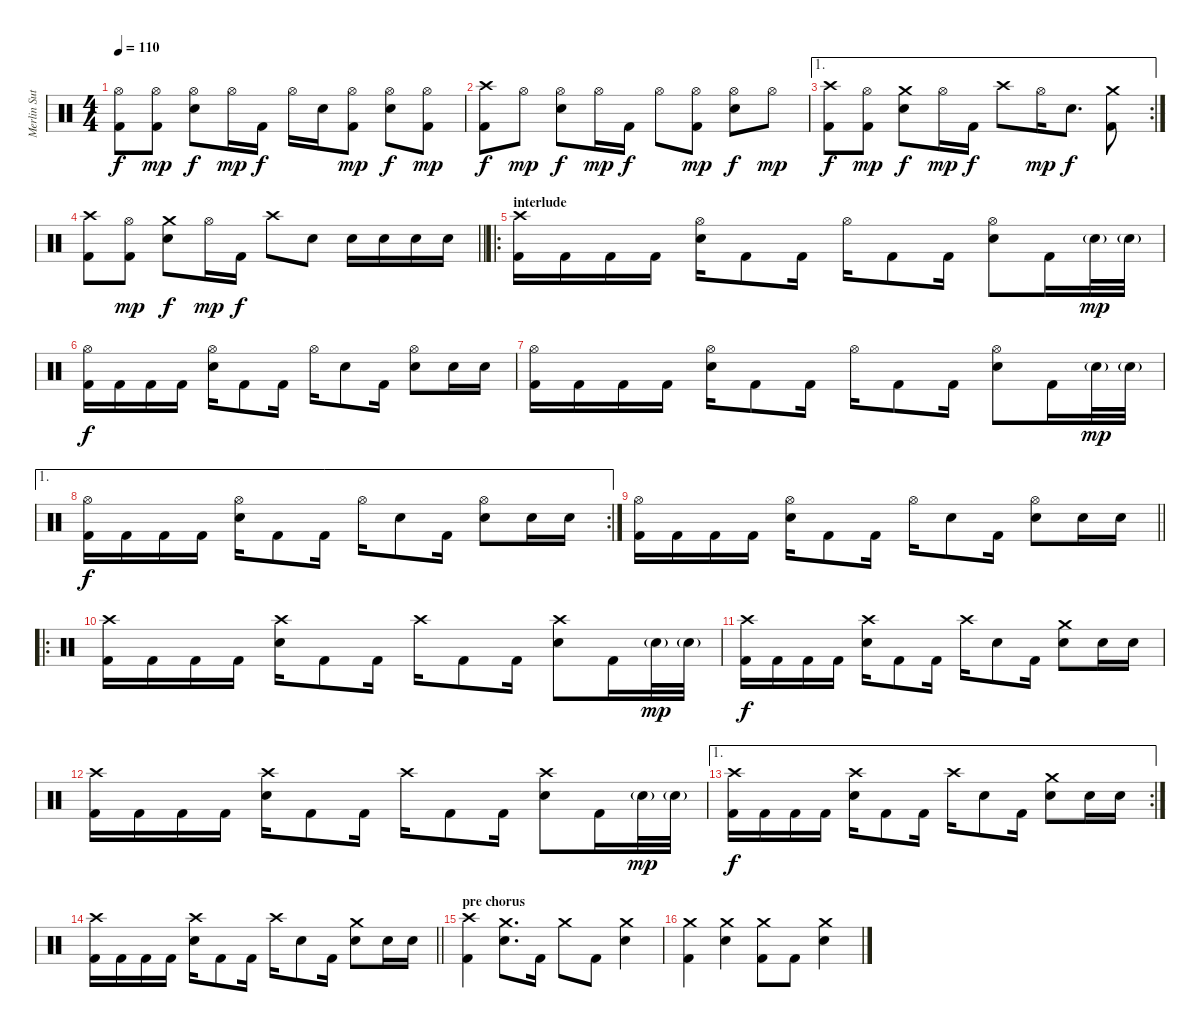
\track ("Merlin Sutter" "Merlin Sut") {instrument percussion}
\staff {score}
\articulation defaults
\ts (4 4)
\tempo 110
\clef neutral
\ks c
("Hi-Hat (open)" "Kick (hit) 2").8{dy f} ("Hi-Hat (open)" "Kick (hit) 2").8{dy mp} ("Hi-Hat (open)" "Snare (hit) 2").8{dy f} "Hi-Hat (open)".16{dy mp} "Kick (hit) 2".16{dy f} "Hi-Hat (open)".16 "Snare (hit) 2".16 ("Hi-Hat (open)" "Kick (hit) 2").8{dy mp} ("Hi-Hat (open)" "Snare (hit) 2").8{dy f} ("Hi-Hat (open)" "Kick (hit) 2").8{dy mp} |
("Crash high (hit)" "Kick (hit) 2").8{dy f} "Hi-Hat (open)".8{dy mp} ("Hi-Hat (open)" "Snare (hit) 2").8{dy f} "Hi-Hat (open)".16{dy mp} "Kick (hit) 2".16{dy f} "Hi-Hat (open)".8 ("Hi-Hat (open)" "Kick (hit) 2").8{dy mp} ("Hi-Hat (open)" "Snare (hit) 2").8{dy f} "Hi-Hat (open)".8{dy mp} |
\ae 1
\rc 2
("Crash high (hit)" "Kick (hit) 2").8{dy f} ("Hi-Hat (open)" "Kick (hit) 2").8{dy mp} ("Crash medium (hit)" "Snare (hit) 2").8{dy f} "Hi-Hat (open)".16{dy mp} "Kick (hit) 2".16{dy f} "Crash high (hit)".8 "Hi-Hat (open)".16{dy mp} "Snare (hit) 2".8{d dy f} ("Crash medium (hit)" "Kick (hit) 2").8 |
\barLineRight lightlight
("Crash high (hit)" "Kick (hit) 2").8 ("Hi-Hat (open)" "Kick (hit) 2").8{dy mp} ("Crash medium (hit)" "Snare (hit) 2").8{dy f} "Hi-Hat (open)".16{dy mp} "Kick (hit) 2".16{dy f} "Crash high (hit)".8 "Snare (hit) 2".8 "Snare (hit) 2".16 "Snare (hit) 2".16 "Snare (hit) 2".16 "Snare (hit) 2".16 |
\ro
\section ("" "interlude")
("Crash high (hit)" "Kick (hit) 2").16 "Kick (hit) 2".16 "Kick (hit) 2".16 "Kick (hit) 2".16 ("Hi-Hat (open)" "Snare (hit) 2").16 "Kick (hit) 2".8 "Kick (hit) 2".16 "Hi-Hat (open)".16 "Kick (hit) 2".8 "Kick (hit) 2".16 ("Hi-Hat (open)" "Snare (hit) 2").8 "Kick (hit) 2".16 "Snare (hit) 2"{g}.32{dy mp} "Snare (hit) 2"{g}.32 |
("Hi-Hat (open)" "Kick (hit) 2").16{dy f} "Kick (hit) 2".16 "Kick (hit) 2".16 "Kick (hit) 2".16 ("Hi-Hat (open)" "Snare (hit) 2").16 "Kick (hit) 2".8 "Kick (hit) 2".16 "Hi-Hat (open)".16 "Snare (hit) 2".8 "Kick (hit) 2".16 ("Hi-Hat (open)" "Snare (hit) 2").8 "Snare (hit) 2".16 "Snare (hit) 2".16 |
("Hi-Hat (open)" "Kick (hit) 2").16 "Kick (hit) 2".16 "Kick (hit) 2".16 "Kick (hit) 2".16 ("Hi-Hat (open)" "Snare (hit) 2").16 "Kick (hit) 2".8 "Kick (hit) 2".16 "Hi-Hat (open)".16 "Kick (hit) 2".8 "Kick (hit) 2".16 ("Hi-Hat (open)" "Snare (hit) 2").8 "Kick (hit) 2".16 "Snare (hit) 2"{g}.32{dy mp} "Snare (hit) 2"{g}.32 |
\ae 1
\rc 2
("Hi-Hat (open)" "Kick (hit) 2").16{dy f} "Kick (hit) 2".16 "Kick (hit) 2".16 "Kick (hit) 2".16 ("Hi-Hat (open)" "Snare (hit) 2").16 "Kick (hit) 2".8 "Kick (hit) 2".16 "Hi-Hat (open)".16 "Snare (hit) 2".8 "Kick (hit) 2".16 ("Hi-Hat (open)" "Snare (hit) 2").8 "Snare (hit) 2".16 "Snare (hit) 2".16 |
\barLineRight lightlight
("Hi-Hat (open)" "Kick (hit) 2").16 "Kick (hit) 2".16 "Kick (hit) 2".16 "Kick (hit) 2".16 ("Hi-Hat (open)" "Snare (hit) 2").16 "Kick (hit) 2".8 "Kick (hit) 2".16 "Hi-Hat (open)".16 "Snare (hit) 2".8 "Kick (hit) 2".16 ("Hi-Hat (open)" "Snare (hit) 2").8 "Snare (hit) 2".16 "Snare (hit) 2".16 |
\ro
\section ("" "")
("Crash high (hit)" "Kick (hit) 2").16 "Kick (hit) 2".16 "Kick (hit) 2".16 "Kick (hit) 2".16 ("Crash high (hit)" "Snare (hit) 2").16 "Kick (hit) 2".8 "Kick (hit) 2".16 "Crash high (hit)".16 "Kick (hit) 2".8 "Kick (hit) 2".16 ("Crash high (hit)" "Snare (hit) 2").8 "Kick (hit) 2".16 "Snare (hit) 2"{g}.32{dy mp} "Snare (hit) 2"{g}.32 |
("Crash high (hit)" "Kick (hit) 2").16{dy f} "Kick (hit) 2".16 "Kick (hit) 2".16 "Kick (hit) 2".16 ("Crash high (hit)" "Snare (hit) 2").16 "Kick (hit) 2".8 "Kick (hit) 2".16 "Crash high (hit)".16 "Snare (hit) 2".8 "Kick (hit) 2".16 ("Crash medium (hit)" "Snare (hit) 2").8 "Snare (hit) 2".16 "Snare (hit) 2".16 |
("Crash high (hit)" "Kick (hit) 2").16 "Kick (hit) 2".16 "Kick (hit) 2".16 "Kick (hit) 2".16 ("Crash high (hit)" "Snare (hit) 2").16 "Kick (hit) 2".8 "Kick (hit) 2".16 "Crash high (hit)".16 "Kick (hit) 2".8 "Kick (hit) 2".16 ("Crash high (hit)" "Snare (hit) 2").8 "Kick (hit) 2".16 "Snare (hit) 2"{g}.32{dy mp} "Snare (hit) 2"{g}.32 |
\ae 1
\rc 2
("Crash high (hit)" "Kick (hit) 2").16{dy f} "Kick (hit) 2".16 "Kick (hit) 2".16 "Kick (hit) 2".16 ("Crash high (hit)" "Snare (hit) 2").16 "Kick (hit) 2".8 "Kick (hit) 2".16 "Crash high (hit)".16 "Snare (hit) 2".8 "Kick (hit) 2".16 ("Crash medium (hit)" "Snare (hit) 2").8 "Snare (hit) 2".16 "Snare (hit) 2".16 |
\barLineRight lightlight
("Crash high (hit)" "Kick (hit) 2").16 "Kick (hit) 2".16 "Kick (hit) 2".16 "Kick (hit) 2".16 ("Crash high (hit)" "Snare (hit) 2").16 "Kick (hit) 2".8 "Kick (hit) 2".16 "Crash high (hit)".16 "Snare (hit) 2".8 "Kick (hit) 2".16 ("Crash medium (hit)" "Snare (hit) 2").8 "Snare (hit) 2".16 "Snare (hit) 2".16 |
\section ("" "pre chorus")
("Crash high (hit)" "Kick (hit) 2").4 ("Crash medium (hit)" "Snare (hit) 2").8{d} "Kick (hit) 2".16 "Crash medium (hit)".8 "Kick (hit) 2".8 ("Crash medium (hit)" "Snare (hit) 2").4 |
("Crash medium (hit)" "Kick (hit) 2").4 ("Crash medium (hit)" "Snare (hit) 2").4 ("Crash medium (hit)" "Kick (hit) 2").8 "Kick (hit) 2".8 ("Crash medium (hit)" "Snare (hit) 2").4
